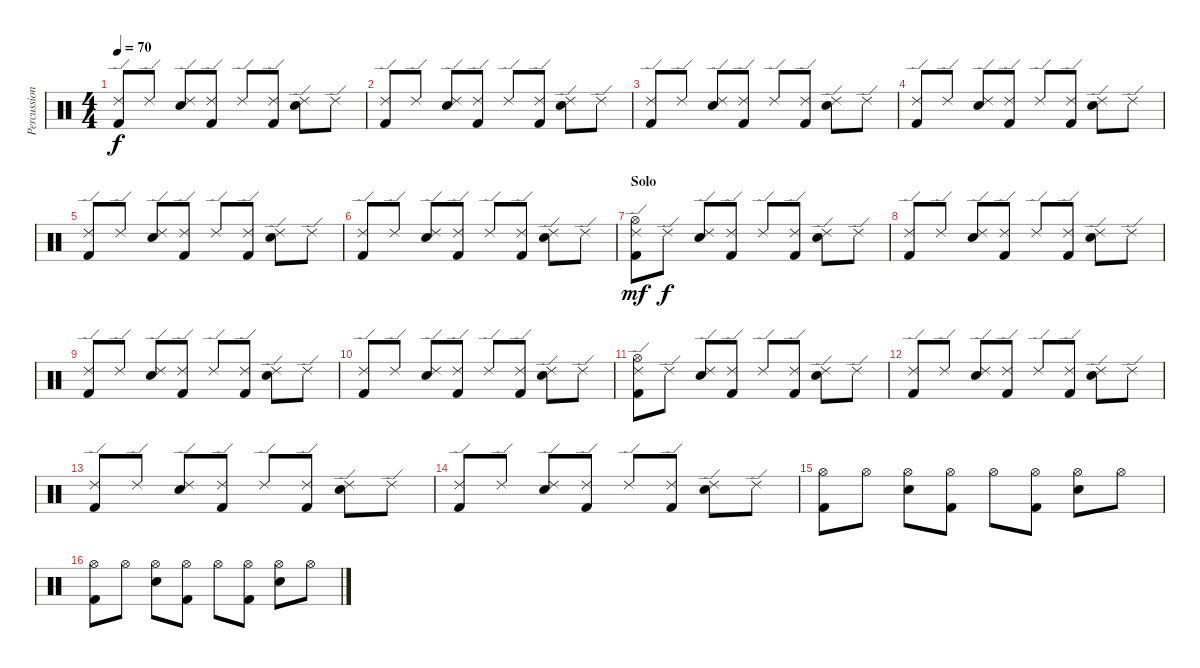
\track ("Percussion" "Percussion") {instrument percussion}
\staff {score}
\articulation defaults
\ts (4 4)
\tempo 70
\clef neutral
\ks c
("Ride (edge) 2" "Kick (hit) 2").8{dy f} "Ride (edge) 2".8 ("Ride (edge) 2" "Electric Snare (hit)").8 ("Ride (edge) 2" "Kick (hit) 2").8 "Ride (edge) 2".8 ("Ride (edge) 2" "Kick (hit) 2").8 ("Ride (edge) 2" "Electric Snare (hit)").8 "Ride (edge) 2".8 |
("Ride (edge) 2" "Kick (hit) 2").8 "Ride (edge) 2".8 ("Ride (edge) 2" "Electric Snare (hit)").8 ("Ride (edge) 2" "Kick (hit) 2").8 "Ride (edge) 2".8 ("Ride (edge) 2" "Kick (hit) 2").8 ("Ride (edge) 2" "Electric Snare (hit)").8 "Ride (edge) 2".8 |
("Ride (edge) 2" "Kick (hit) 2").8 "Ride (edge) 2".8 ("Ride (edge) 2" "Electric Snare (hit)").8 ("Ride (edge) 2" "Kick (hit) 2").8 "Ride (edge) 2".8 ("Ride (edge) 2" "Kick (hit) 2").8 ("Ride (edge) 2" "Electric Snare (hit)").8 "Ride (edge) 2".8 |
("Ride (edge) 2" "Kick (hit) 2").8 "Ride (edge) 2".8 ("Ride (edge) 2" "Electric Snare (hit)").8 ("Ride (edge) 2" "Kick (hit) 2").8 "Ride (edge) 2".8 ("Ride (edge) 2" "Kick (hit) 2").8 ("Ride (edge) 2" "Electric Snare (hit)").8 "Ride (edge) 2".8 |
("Ride (edge) 2" "Kick (hit) 2").8 "Ride (edge) 2".8 ("Ride (edge) 2" "Electric Snare (hit)").8 ("Ride (edge) 2" "Kick (hit) 2").8 "Ride (edge) 2".8 ("Ride (edge) 2" "Kick (hit) 2").8 ("Ride (edge) 2" "Electric Snare (hit)").8 "Ride (edge) 2".8 |
("Ride (edge) 2" "Kick (hit) 2").8 "Ride (edge) 2".8 ("Ride (edge) 2" "Electric Snare (hit)").8 ("Ride (edge) 2" "Kick (hit) 2").8 "Ride (edge) 2".8 ("Ride (edge) 2" "Kick (hit) 2").8 ("Ride (edge) 2" "Electric Snare (hit)").8 "Ride (edge) 2".8 |
\section ("" "Solo")
("Ride (edge) 2" "Hi-Hat (open)" "Kick (hit) 2").8{dy mf} "Ride (edge) 2".8{dy f} ("Ride (edge) 2" "Electric Snare (hit)").8 ("Ride (edge) 2" "Kick (hit) 2").8 "Ride (edge) 2".8 ("Ride (edge) 2" "Kick (hit) 2").8 ("Ride (edge) 2" "Electric Snare (hit)").8 "Ride (edge) 2".8 |
("Ride (edge) 2" "Kick (hit) 2").8 "Ride (edge) 2".8 ("Ride (edge) 2" "Electric Snare (hit)").8 ("Ride (edge) 2" "Kick (hit) 2").8 "Ride (edge) 2".8 ("Ride (edge) 2" "Kick (hit) 2").8 ("Ride (edge) 2" "Electric Snare (hit)").8 "Ride (edge) 2".8 |
("Ride (edge) 2" "Kick (hit) 2").8 "Ride (edge) 2".8 ("Ride (edge) 2" "Electric Snare (hit)").8 ("Ride (edge) 2" "Kick (hit) 2").8 "Ride (edge) 2".8 ("Ride (edge) 2" "Kick (hit) 2").8 ("Ride (edge) 2" "Electric Snare (hit)").8 "Ride (edge) 2".8 |
("Ride (edge) 2" "Kick (hit) 2").8 "Ride (edge) 2".8 ("Ride (edge) 2" "Electric Snare (hit)").8 ("Ride (edge) 2" "Kick (hit) 2").8 "Ride (edge) 2".8 ("Ride (edge) 2" "Kick (hit) 2").8 ("Ride (edge) 2" "Electric Snare (hit)").8 "Ride (edge) 2".8 |
("Ride (edge) 2" "Hi-Hat (open)" "Kick (hit) 2").8 "Ride (edge) 2".8 ("Ride (edge) 2" "Electric Snare (hit)").8 ("Ride (edge) 2" "Kick (hit) 2").8 "Ride (edge) 2".8 ("Ride (edge) 2" "Kick (hit) 2").8 ("Ride (edge) 2" "Electric Snare (hit)").8 "Ride (edge) 2".8 |
("Ride (edge) 2" "Kick (hit) 2").8 "Ride (edge) 2".8 ("Ride (edge) 2" "Electric Snare (hit)").8 ("Ride (edge) 2" "Kick (hit) 2").8 "Ride (edge) 2".8 ("Ride (edge) 2" "Kick (hit) 2").8 ("Ride (edge) 2" "Electric Snare (hit)").8 "Ride (edge) 2".8 |
("Ride (edge) 2" "Kick (hit) 2").8 "Ride (edge) 2".8 ("Ride (edge) 2" "Electric Snare (hit)").8 ("Ride (edge) 2" "Kick (hit) 2").8 "Ride (edge) 2".8 ("Ride (edge) 2" "Kick (hit) 2").8 ("Ride (edge) 2" "Electric Snare (hit)").8 "Ride (edge) 2".8 |
("Ride (edge) 2" "Kick (hit) 2").8 "Ride (edge) 2".8 ("Ride (edge) 2" "Electric Snare (hit)").8 ("Ride (edge) 2" "Kick (hit) 2").8 "Ride (edge) 2".8 ("Ride (edge) 2" "Kick (hit) 2").8 ("Ride (edge) 2" "Electric Snare (hit)").8 "Ride (edge) 2".8 |
("Hi-Hat (open)" "Kick (hit) 2").8 "Hi-Hat (open)".8 ("Hi-Hat (open)" "Electric Snare (hit)").8 ("Hi-Hat (open)" "Kick (hit) 2").8 "Hi-Hat (open)".8 ("Hi-Hat (open)" "Kick (hit) 2").8 ("Hi-Hat (open)" "Electric Snare (hit)").8 "Hi-Hat (open)".8 |
("Hi-Hat (open)" "Kick (hit) 2").8 "Hi-Hat (open)".8 ("Hi-Hat (open)" "Electric Snare (hit)").8 ("Hi-Hat (open)" "Kick (hit) 2").8 "Hi-Hat (open)".8 ("Hi-Hat (open)" "Kick (hit) 2").8 ("Hi-Hat (open)" "Electric Snare (hit)").8 "Hi-Hat (open)".8
